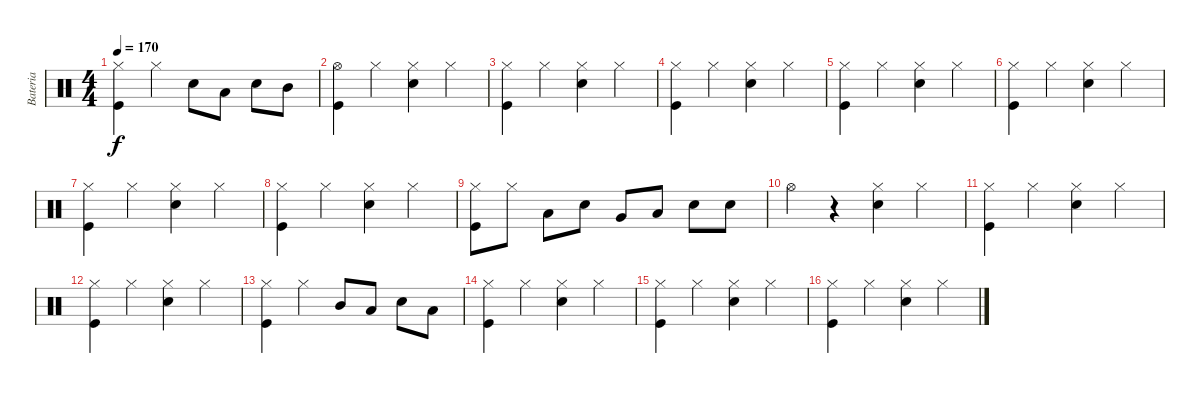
\track ("Bateria" "Bateria") {instrument percussion}
\staff {score}
\articulation defaults
\ts (4 4)
\tempo 170
\clef neutral
\ks c
("Hi-Hat (closed)" "Kick (hit)").4{dy f} "Hi-Hat (closed)".4 "Snare (hit) 2".8 "Low Tom (hit)".8 "Snare (hit) 2".8 "Mid Tom (hit)".8 |
("Hi-Hat (open)" "Kick (hit)").4 "Hi-Hat (closed)".4 ("Hi-Hat (closed)" "Snare (hit) 2").4 "Hi-Hat (closed)".4 |
("Hi-Hat (closed)" "Kick (hit)").4 "Hi-Hat (closed)".4 ("Hi-Hat (closed)" "Snare (hit) 2").4 "Hi-Hat (closed)".4 |
("Hi-Hat (closed)" "Kick (hit)").4 "Hi-Hat (closed)".4 ("Hi-Hat (closed)" "Snare (hit) 2").4 "Hi-Hat (closed)".4 |
("Hi-Hat (closed)" "Kick (hit)").4 "Hi-Hat (closed)".4 ("Hi-Hat (closed)" "Snare (hit) 2").4 "Hi-Hat (closed)".4 |
("Hi-Hat (closed)" "Kick (hit)").4 "Hi-Hat (closed)".4 ("Hi-Hat (closed)" "Snare (hit) 2").4 "Hi-Hat (closed)".4 |
("Hi-Hat (closed)" "Kick (hit)").4 "Hi-Hat (closed)".4 ("Hi-Hat (closed)" "Snare (hit) 2").4 "Hi-Hat (closed)".4 |
("Hi-Hat (closed)" "Kick (hit)").4 "Hi-Hat (closed)".4 ("Hi-Hat (closed)" "Snare (hit) 2").4 "Hi-Hat (closed)".4 |
("Hi-Hat (closed)" "Kick (hit)").8 "Hi-Hat (closed)".8 "Low Tom (hit)".8 "Snare (hit) 2".8 "Very Low Tom (hit)".8 "Low Tom (hit)".8 "Snare (hit) 2".8 "Snare (hit) 2".8 |
"Hi-Hat (open)".4{balance 8} r.4 ("Hi-Hat (closed)" "Snare (hit) 2").4 "Hi-Hat (closed)".4 |
("Hi-Hat (closed)" "Kick (hit)").4 "Hi-Hat (closed)".4 ("Hi-Hat (closed)" "Snare (hit) 2").4 "Hi-Hat (closed)".4 |
("Hi-Hat (closed)" "Kick (hit)").4 "Hi-Hat (closed)".4 ("Hi-Hat (closed)" "Snare (hit) 2").4 "Hi-Hat (closed)".4 |
("Hi-Hat (closed)" "Kick (hit)").4 "Hi-Hat (closed)".4 "Mid Tom (hit)".8 "Low Tom (hit)".8 "Snare (hit) 2".8 "Low Tom (hit)".8 |
("Hi-Hat (closed)" "Kick (hit)").4 "Hi-Hat (closed)".4 ("Hi-Hat (closed)" "Snare (hit) 2").4 "Hi-Hat (closed)".4 |
("Hi-Hat (closed)" "Kick (hit)").4 "Hi-Hat (closed)".4 ("Hi-Hat (closed)" "Snare (hit) 2").4 "Hi-Hat (closed)".4 |
("Hi-Hat (closed)" "Kick (hit)").4 "Hi-Hat (closed)".4 ("Hi-Hat (closed)" "Snare (hit) 2").4 "Hi-Hat (closed)".4
